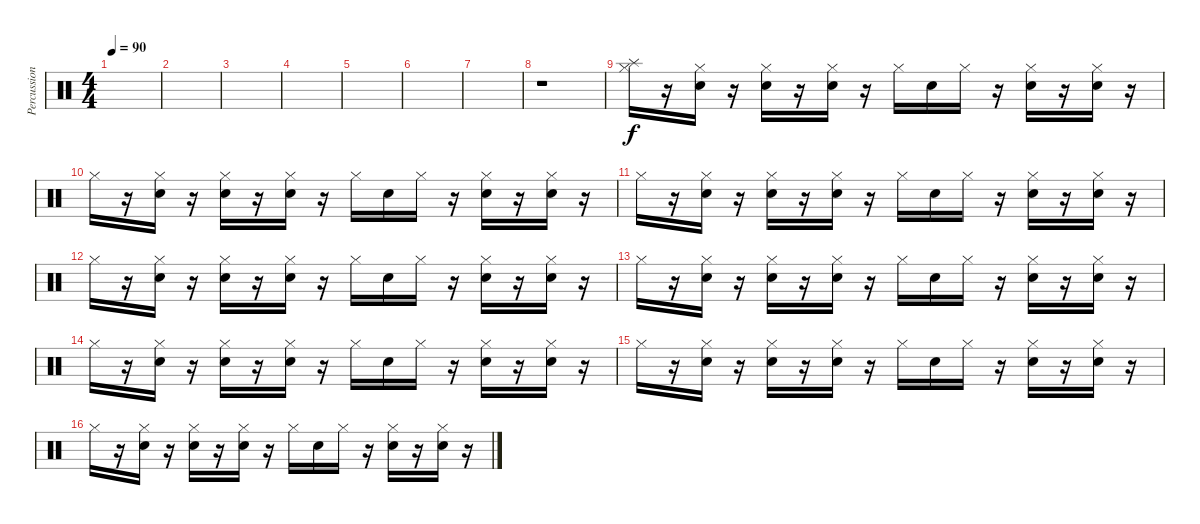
\track ("Percussion" "Percussion") {instrument percussion}
\staff {score}
\articulation defaults
\ts (4 4)
\tempo 90
\clef neutral
\ks c
|
|
|
|
|
|
|
r.1 |
("Hi-Hat (closed)" "Splash (hit)").16 r.16 ("Hi-Hat (closed)" "Hand Clap (hit)").16 r.16 ("Hi-Hat (closed)" "Snare (hit) 2").16 r.16 ("Hi-Hat (closed)" "Hand Clap (hit)").16 r.16 "Hi-Hat (closed)".16 "Hand Clap (hit)".16 "Hi-Hat (closed)".16 r.16 ("Hi-Hat (closed)" "Snare (hit) 2").16 r.16 ("Hi-Hat (closed)" "Hand Clap (hit)").16 r.16 |
"Hi-Hat (closed)".16 r.16 ("Hi-Hat (closed)" "Hand Clap (hit)").16 r.16 ("Hi-Hat (closed)" "Snare (hit) 2").16 r.16 ("Hi-Hat (closed)" "Hand Clap (hit)").16 r.16 "Hi-Hat (closed)".16 "Hand Clap (hit)".16 "Hi-Hat (closed)".16 r.16 ("Hi-Hat (closed)" "Snare (hit) 2").16 r.16 ("Hi-Hat (closed)" "Hand Clap (hit)").16 r.16 |
"Hi-Hat (closed)".16 r.16 ("Hi-Hat (closed)" "Hand Clap (hit)").16 r.16 ("Hi-Hat (closed)" "Snare (hit) 2").16 r.16 ("Hi-Hat (closed)" "Hand Clap (hit)").16 r.16 "Hi-Hat (closed)".16 "Hand Clap (hit)".16 "Hi-Hat (closed)".16 r.16 ("Hi-Hat (closed)" "Snare (hit) 2").16 r.16 ("Hi-Hat (closed)" "Hand Clap (hit)").16 r.16 |
"Hi-Hat (closed)".16 r.16 ("Hi-Hat (closed)" "Hand Clap (hit)").16 r.16 ("Hi-Hat (closed)" "Snare (hit) 2").16 r.16 ("Hi-Hat (closed)" "Hand Clap (hit)").16 r.16 "Hi-Hat (closed)".16 "Hand Clap (hit)".16 "Hi-Hat (closed)".16 r.16 ("Hi-Hat (closed)" "Snare (hit) 2").16 r.16 ("Hi-Hat (closed)" "Hand Clap (hit)").16 r.16 |
"Hi-Hat (closed)".16 r.16 ("Hi-Hat (closed)" "Hand Clap (hit)").16 r.16 ("Hi-Hat (closed)" "Snare (hit) 2").16 r.16 ("Hi-Hat (closed)" "Hand Clap (hit)").16 r.16 "Hi-Hat (closed)".16 "Hand Clap (hit)".16 "Hi-Hat (closed)".16 r.16 ("Hi-Hat (closed)" "Snare (hit) 2").16 r.16 ("Hi-Hat (closed)" "Hand Clap (hit)").16 r.16 |
"Hi-Hat (closed)".16 r.16 ("Hi-Hat (closed)" "Hand Clap (hit)").16 r.16 ("Hi-Hat (closed)" "Snare (hit) 2").16 r.16 ("Hi-Hat (closed)" "Hand Clap (hit)").16 r.16 "Hi-Hat (closed)".16 "Hand Clap (hit)".16 "Hi-Hat (closed)".16 r.16 ("Hi-Hat (closed)" "Snare (hit) 2").16 r.16 ("Hi-Hat (closed)" "Hand Clap (hit)").16 r.16 |
"Hi-Hat (closed)".16 r.16 ("Hi-Hat (closed)" "Hand Clap (hit)").16 r.16 ("Hi-Hat (closed)" "Snare (hit) 2").16 r.16 ("Hi-Hat (closed)" "Hand Clap (hit)").16 r.16 "Hi-Hat (closed)".16 "Hand Clap (hit)".16 "Hi-Hat (closed)".16 r.16 ("Hi-Hat (closed)" "Snare (hit) 2").16 r.16 ("Hi-Hat (closed)" "Hand Clap (hit)").16 r.16 |
"Hi-Hat (closed)".16 r.16 ("Hi-Hat (closed)" "Hand Clap (hit)").16 r.16 ("Hi-Hat (closed)" "Snare (hit) 2").16 r.16 ("Hi-Hat (closed)" "Hand Clap (hit)").16 r.16 "Hi-Hat (closed)".16 "Hand Clap (hit)".16 "Hi-Hat (closed)".16 r.16 ("Hi-Hat (closed)" "Snare (hit) 2").16 r.16 ("Hi-Hat (closed)" "Hand Clap (hit)").16 r.16
